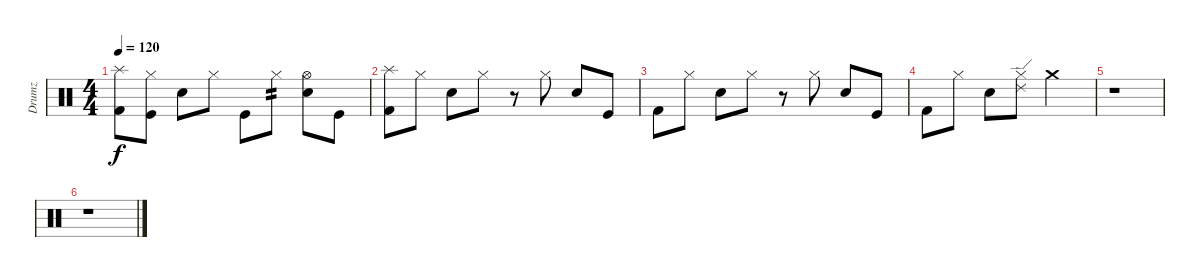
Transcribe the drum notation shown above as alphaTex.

\track ("Drumz" "Drumz") {instrument percussion}
\staff {score}
\articulation defaults
\ts (4 4)
\tempo 120
\clef neutral
\ks c
("Splash (hit)" "Kick (hit) 2").8{dy f} ("Hi-Hat (closed)" "Kick (hit)").8 "Electric Snare (hit)".8 "Hi-Hat (closed)".8 "Kick (hit)".8 "Hi-Hat (closed)".8{tp 2} ("Hi-Hat (open)" "Electric Snare (hit)").8 "Kick (hit)".8 |
("Splash (hit)" "Kick (hit) 2").8 "Hi-Hat (closed)".8 "Electric Snare (hit)".8 "Hi-Hat (closed)".8 r.8 "Hi-Hat (closed)".8 "Electric Snare (hit)".8 "Kick (hit)".8 |
"Kick (hit) 2".8 "Hi-Hat (closed)".8 "Electric Snare (hit)".8 "Hi-Hat (closed)".8 r.8 "Hi-Hat (closed)".8 "Electric Snare (hit)".8 "Kick (hit)".8 |
"Kick (hit) 2".8 "Hi-Hat (closed)".8 "Electric Snare (hit)".8 ("Ride (edge) 2" "Hi-Hat (closed)").8 "Crash medium (hit)".2 |
r.1 |
r.1
